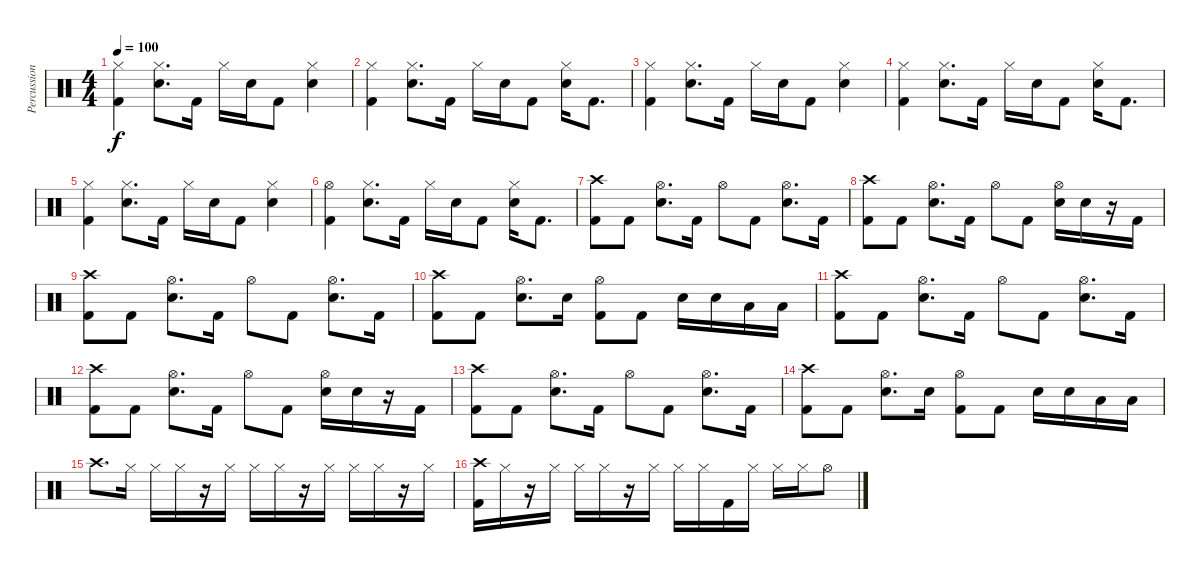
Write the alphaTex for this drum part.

\track ("Percussion" "Percussion") {instrument percussion}
\staff {score}
\articulation defaults
\ts (4 4)
\tempo 100
\clef neutral
\ks c
("Hi-Hat (closed)" "Kick (hit) 2").4{dy f} ("Hi-Hat (closed)" "Electric Snare (hit)").8{d} "Kick (hit) 2".16 "Hi-Hat (closed)".16 "Electric Snare (hit)".16 "Kick (hit) 2".8 ("Electric Snare (hit)" "Hi-Hat (closed)").4 |
("Hi-Hat (closed)" "Kick (hit) 2").4 ("Hi-Hat (closed)" "Electric Snare (hit)").8{d} "Kick (hit) 2".16 "Hi-Hat (closed)".16 "Electric Snare (hit)".16 "Kick (hit) 2".8 ("Hi-Hat (closed)" "Electric Snare (hit)").16 "Kick (hit) 2".8{d} |
("Hi-Hat (closed)" "Kick (hit) 2").4 ("Hi-Hat (closed)" "Electric Snare (hit)").8{d} "Kick (hit) 2".16 "Hi-Hat (closed)".16 "Electric Snare (hit)".16 "Kick (hit) 2".8 ("Electric Snare (hit)" "Hi-Hat (closed)").4 |
("Hi-Hat (closed)" "Kick (hit) 2").4 ("Hi-Hat (closed)" "Electric Snare (hit)").8{d} "Kick (hit) 2".16 "Hi-Hat (closed)".16 "Electric Snare (hit)".16 "Kick (hit) 2".8 ("Hi-Hat (closed)" "Electric Snare (hit)").16 "Kick (hit) 2".8{d} |
("Hi-Hat (closed)" "Kick (hit) 2").4 ("Hi-Hat (closed)" "Electric Snare (hit)").8{d} "Kick (hit) 2".16 "Hi-Hat (closed)".16 "Electric Snare (hit)".16 "Kick (hit) 2".8 ("Electric Snare (hit)" "Hi-Hat (closed)").4 |
("Hi-Hat (open)" "Kick (hit) 2").4 ("Hi-Hat (closed)" "Electric Snare (hit)").8{d} "Kick (hit) 2".16 "Hi-Hat (closed)".16 "Electric Snare (hit)".16 "Kick (hit) 2".8 ("Hi-Hat (closed)" "Electric Snare (hit)").16 "Kick (hit) 2".8{d} |
("Kick (hit) 2" "Crash high (hit)").8 "Kick (hit) 2".8 ("Electric Snare (hit)" "Hi-Hat (open)").8{d} "Kick (hit) 2".16 "Hi-Hat (open)".8 "Kick (hit) 2".8 ("Hi-Hat (open)" "Electric Snare (hit)").8{d} "Kick (hit) 2".16 |
("Crash high (hit)" "Kick (hit) 2").8 "Kick (hit) 2".8 ("Hi-Hat (open)" "Electric Snare (hit)").8{d} "Kick (hit) 2".16 "Hi-Hat (open)".8 "Kick (hit) 2".8 ("Hi-Hat (open)" "Electric Snare (hit)").16 "Electric Snare (hit)".16 r.16 "Kick (hit) 2".16 |
("Kick (hit) 2" "Crash high (hit)").8 "Kick (hit) 2".8 ("Electric Snare (hit)" "Hi-Hat (open)").8{d} "Kick (hit) 2".16 "Hi-Hat (open)".8 "Kick (hit) 2".8 ("Hi-Hat (open)" "Electric Snare (hit)").8{d} "Kick (hit) 2".16 |
("Kick (hit) 2" "Crash high (hit)").8 "Kick (hit) 2".8 ("Hi-Hat (open)" "Electric Snare (hit)").8{d} "Electric Snare (hit)".16 ("Kick (hit) 2" "Hi-Hat (open)").8 "Kick (hit) 2".8 "Electric Snare (hit)".16 "Electric Snare (hit)".16 "Low Tom (hit)".16 "Low Tom (hit)".16 |
("Kick (hit) 2" "Crash high (hit)").8 "Kick (hit) 2".8 ("Electric Snare (hit)" "Hi-Hat (open)").8{d} "Kick (hit) 2".16 "Hi-Hat (open)".8 "Kick (hit) 2".8 ("Hi-Hat (open)" "Electric Snare (hit)").8{d} "Kick (hit) 2".16 |
("Crash high (hit)" "Kick (hit) 2").8 "Kick (hit) 2".8 ("Hi-Hat (open)" "Electric Snare (hit)").8{d} "Kick (hit) 2".16 "Hi-Hat (open)".8 "Kick (hit) 2".8 ("Hi-Hat (open)" "Electric Snare (hit)").16 "Electric Snare (hit)".16 r.16 "Kick (hit) 2".16 |
("Kick (hit) 2" "Crash high (hit)").8 "Kick (hit) 2".8 ("Electric Snare (hit)" "Hi-Hat (open)").8{d} "Kick (hit) 2".16 "Hi-Hat (open)".8 "Kick (hit) 2".8 ("Hi-Hat (open)" "Electric Snare (hit)").8{d} "Kick (hit) 2".16 |
("Kick (hit) 2" "Crash high (hit)").8 "Kick (hit) 2".8 ("Hi-Hat (open)" "Electric Snare (hit)").8{d} "Electric Snare (hit)".16 ("Kick (hit) 2" "Hi-Hat (open)").8 "Kick (hit) 2".8 "Electric Snare (hit)".16 "Electric Snare (hit)".16 "Low Tom (hit)".16 "Low Tom (hit)".16 |
"Crash high (hit)".8{d volume 6} "Hi-Hat (closed)".16 "Hi-Hat (closed)".16 "Hi-Hat (closed)".16 r.16 "Hi-Hat (closed)".16 "Hi-Hat (closed)".16 "Hi-Hat (closed)".16 r.16 "Hi-Hat (closed)".16 "Hi-Hat (closed)".16 "Hi-Hat (closed)".16 r.16 "Hi-Hat (closed)".16 |
("Kick (hit) 2" "Crash high (hit)").16 "Hi-Hat (closed)".16 r.16 "Hi-Hat (closed)".16 "Hi-Hat (closed)".16 "Hi-Hat (closed)".16 r.16 "Hi-Hat (closed)".16 "Hi-Hat (closed)".16 "Hi-Hat (closed)".16 "Kick (hit) 2".16 "Hi-Hat (closed)".16 "Hi-Hat (closed)".16 "Hi-Hat (closed)".16 "Hi-Hat (open)".8
